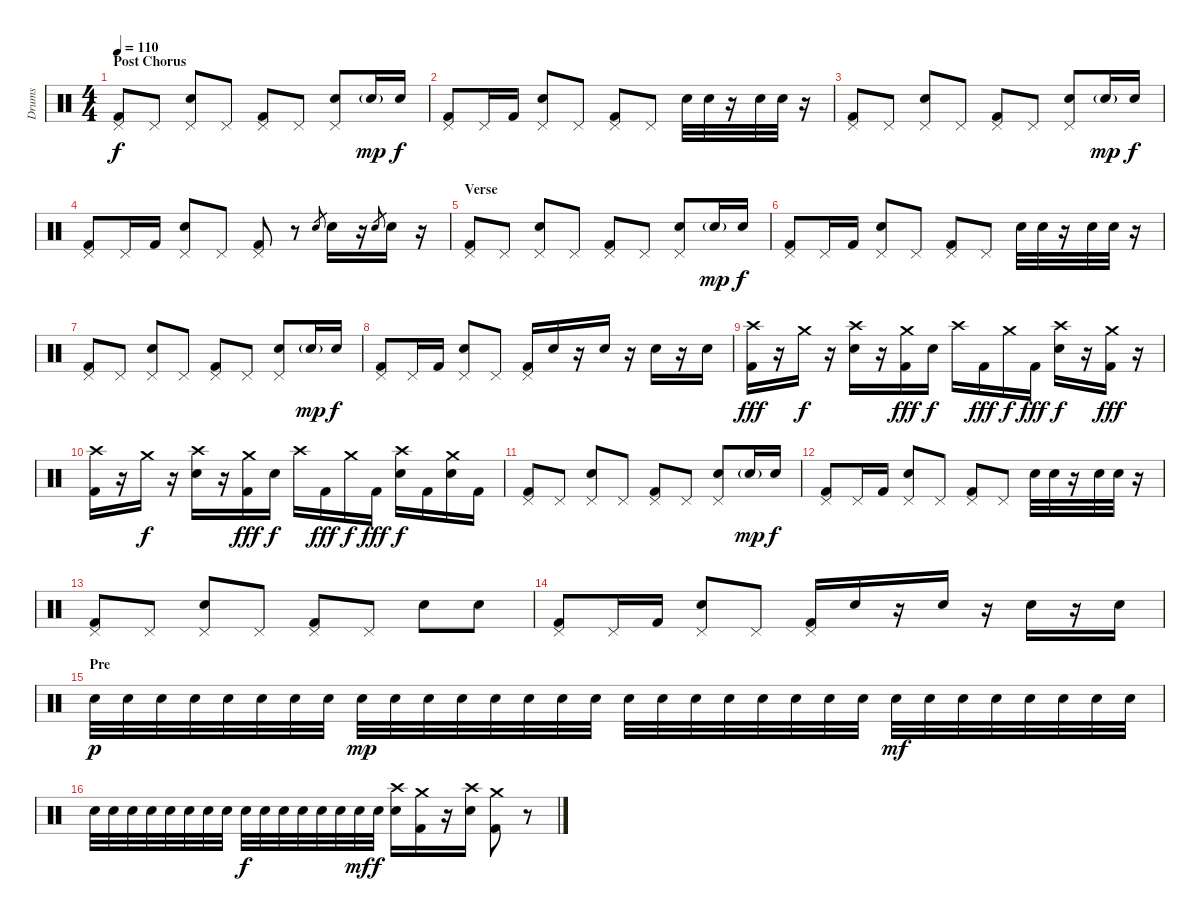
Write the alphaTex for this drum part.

\track ("Drums" "Drums") {instrument percussion}
\staff {score}
\articulation defaults
\ts (4 4)
\section ("" "Post Chorus")
\tempo 110
\clef neutral
\ks c
("Pedal Hi-Hat (hit)" "Kick (hit) 2").8{dy f} "Pedal Hi-Hat (hit)".8 ("Pedal Hi-Hat (hit)" "Electric Snare (hit)").8 "Pedal Hi-Hat (hit)".8 ("Pedal Hi-Hat (hit)" "Kick (hit) 2").8 "Pedal Hi-Hat (hit)".8 ("Pedal Hi-Hat (hit)" "Electric Snare (hit)").8 "Electric Snare (hit)"{g}.16{dy mp} "Electric Snare (hit)".16{dy f} |
("Pedal Hi-Hat (hit)" "Kick (hit) 2").8 "Pedal Hi-Hat (hit)".16 "Kick (hit) 2".16 ("Pedal Hi-Hat (hit)" "Electric Snare (hit)").8 "Pedal Hi-Hat (hit)".8 ("Pedal Hi-Hat (hit)" "Kick (hit) 2").8 "Pedal Hi-Hat (hit)".8 "Electric Snare (hit)".32 "Electric Snare (hit)".32 r.16 "Electric Snare (hit)".32 "Electric Snare (hit)".32 r.16 |
("Pedal Hi-Hat (hit)" "Kick (hit) 2").8 "Pedal Hi-Hat (hit)".8 ("Pedal Hi-Hat (hit)" "Electric Snare (hit)").8 "Pedal Hi-Hat (hit)".8 ("Pedal Hi-Hat (hit)" "Kick (hit) 2").8 "Pedal Hi-Hat (hit)".8 ("Pedal Hi-Hat (hit)" "Electric Snare (hit)").8 "Electric Snare (hit)"{g}.16{dy mp} "Electric Snare (hit)".16{dy f} |
("Pedal Hi-Hat (hit)" "Kick (hit) 2").8 "Pedal Hi-Hat (hit)".16 "Kick (hit) 2".16 ("Pedal Hi-Hat (hit)" "Electric Snare (hit)").8 "Pedal Hi-Hat (hit)".8 ("Pedal Hi-Hat (hit)" "Kick (hit) 2").8 r.8 "Electric Snare (hit)".8{gr} "Electric Snare (hit)".16 r.16 "Electric Snare (hit)".8{gr} "Electric Snare (hit)".16 r.16 |
\section ("" "Verse")
("Pedal Hi-Hat (hit)" "Kick (hit) 2").8 "Pedal Hi-Hat (hit)".8 ("Pedal Hi-Hat (hit)" "Electric Snare (hit)").8 "Pedal Hi-Hat (hit)".8 ("Pedal Hi-Hat (hit)" "Kick (hit) 2").8 "Pedal Hi-Hat (hit)".8 ("Pedal Hi-Hat (hit)" "Electric Snare (hit)").8 "Electric Snare (hit)"{g}.16{dy mp} "Electric Snare (hit)".16{dy f} |
("Pedal Hi-Hat (hit)" "Kick (hit) 2").8 "Pedal Hi-Hat (hit)".16 "Kick (hit) 2".16 ("Pedal Hi-Hat (hit)" "Electric Snare (hit)").8 "Pedal Hi-Hat (hit)".8 ("Pedal Hi-Hat (hit)" "Kick (hit) 2").8 "Pedal Hi-Hat (hit)".8 "Electric Snare (hit)".32 "Electric Snare (hit)".32 r.16 "Electric Snare (hit)".32 "Electric Snare (hit)".32 r.16 |
("Pedal Hi-Hat (hit)" "Kick (hit) 2").8 "Pedal Hi-Hat (hit)".8 ("Pedal Hi-Hat (hit)" "Electric Snare (hit)").8 "Pedal Hi-Hat (hit)".8 ("Pedal Hi-Hat (hit)" "Kick (hit) 2").8 "Pedal Hi-Hat (hit)".8 ("Pedal Hi-Hat (hit)" "Electric Snare (hit)").8 "Electric Snare (hit)"{g}.16{dy mp} "Electric Snare (hit)".16{dy f} |
("Pedal Hi-Hat (hit)" "Kick (hit) 2").8 "Pedal Hi-Hat (hit)".16 "Kick (hit) 2".16 ("Pedal Hi-Hat (hit)" "Electric Snare (hit)").8 "Pedal Hi-Hat (hit)".8 ("Pedal Hi-Hat (hit)" "Kick (hit) 2").16 "Electric Snare (hit)".16 r.16 "Electric Snare (hit)".16 r.16 "Electric Snare (hit)".16 r.16 "Electric Snare (hit)".16 |
("Crash high (hit)" "Kick (hit) 2").16{dy fff} r.16 "Crash medium (hit)".16{dy f} r.16 ("Crash high (hit)" "Electric Snare (hit)").16 r.16 ("Crash medium (hit)" "Kick (hit) 2").16{dy fff} "Electric Snare (hit)".16{dy f} "Crash high (hit)".16 "Kick (hit) 2".16{dy fff} "Crash medium (hit)".16{dy f} "Kick (hit) 2".16{dy fff} ("Crash high (hit)" "Electric Snare (hit)").16{dy f} r.16 ("Crash medium (hit)" "Kick (hit) 2").16{dy fff} r.16 |
("Crash high (hit)" "Kick (hit) 2").16 r.16 "Crash medium (hit)".16{dy f} r.16 ("Crash high (hit)" "Electric Snare (hit)").16 r.16 ("Crash medium (hit)" "Kick (hit) 2").16{dy fff} "Electric Snare (hit)".16{dy f} "Crash high (hit)".16 "Kick (hit) 2".16{dy fff} "Crash medium (hit)".16{dy f} "Kick (hit) 2".16{dy fff} ("Crash high (hit)" "Electric Snare (hit)").16{dy f} "Kick (hit) 2".16 ("Crash medium (hit)" "Electric Snare (hit)").16 "Kick (hit) 2".16 |
("Pedal Hi-Hat (hit)" "Kick (hit) 2").8 "Pedal Hi-Hat (hit)".8 ("Pedal Hi-Hat (hit)" "Electric Snare (hit)").8 "Pedal Hi-Hat (hit)".8 ("Pedal Hi-Hat (hit)" "Kick (hit) 2").8 "Pedal Hi-Hat (hit)".8 ("Pedal Hi-Hat (hit)" "Electric Snare (hit)").8 "Electric Snare (hit)"{g}.16{dy mp} "Electric Snare (hit)".16{dy f} |
("Pedal Hi-Hat (hit)" "Kick (hit) 2").8 "Pedal Hi-Hat (hit)".16 "Kick (hit) 2".16 ("Pedal Hi-Hat (hit)" "Electric Snare (hit)").8 "Pedal Hi-Hat (hit)".8 ("Pedal Hi-Hat (hit)" "Kick (hit) 2").8 "Pedal Hi-Hat (hit)".8 "Electric Snare (hit)".32 "Electric Snare (hit)".32 r.16 "Electric Snare (hit)".32 "Electric Snare (hit)".32 r.16 |
("Pedal Hi-Hat (hit)" "Kick (hit) 2").8 "Pedal Hi-Hat (hit)".8 ("Pedal Hi-Hat (hit)" "Electric Snare (hit)").8 "Pedal Hi-Hat (hit)".8 ("Pedal Hi-Hat (hit)" "Kick (hit) 2").8 "Pedal Hi-Hat (hit)".8 "Electric Snare (hit)".8 "Electric Snare (hit)".8 |
("Pedal Hi-Hat (hit)" "Kick (hit) 2").8 "Pedal Hi-Hat (hit)".16 "Kick (hit) 2".16 ("Pedal Hi-Hat (hit)" "Electric Snare (hit)").8 "Pedal Hi-Hat (hit)".8 ("Pedal Hi-Hat (hit)" "Kick (hit) 2").16 "Electric Snare (hit)".16 r.16 "Electric Snare (hit)".16 r.16 "Electric Snare (hit)".16 r.16 "Electric Snare (hit)".16 |
\section ("" "Pre")
"Electric Snare (hit)".32{dy p} "Electric Snare (hit)".32 "Electric Snare (hit)".32 "Electric Snare (hit)".32 "Electric Snare (hit)".32 "Electric Snare (hit)".32 "Electric Snare (hit)".32 "Electric Snare (hit)".32 "Electric Snare (hit)".32{dy mp} "Electric Snare (hit)".32 "Electric Snare (hit)".32 "Electric Snare (hit)".32 "Electric Snare (hit)".32 "Electric Snare (hit)".32 "Electric Snare (hit)".32 "Electric Snare (hit)".32 "Electric Snare (hit)".32 "Electric Snare (hit)".32 "Electric Snare (hit)".32 "Electric Snare (hit)".32 "Electric Snare (hit)".32 "Electric Snare (hit)".32 "Electric Snare (hit)".32 "Electric Snare (hit)".32 "Electric Snare (hit)".32{dy mf} "Electric Snare (hit)".32 "Electric Snare (hit)".32 "Electric Snare (hit)".32 "Electric Snare (hit)".32 "Electric Snare (hit)".32 "Electric Snare (hit)".32 "Electric Snare (hit)".32 |
"Electric Snare (hit)".32 "Electric Snare (hit)".32 "Electric Snare (hit)".32 "Electric Snare (hit)".32 "Electric Snare (hit)".32 "Electric Snare (hit)".32 "Electric Snare (hit)".32 "Electric Snare (hit)".32 "Electric Snare (hit)".32{dy f} "Electric Snare (hit)".32 "Electric Snare (hit)".32 "Electric Snare (hit)".32 "Electric Snare (hit)".32 "Electric Snare (hit)".32 "Electric Snare (hit)".32{dy mf} "Electric Snare (hit)".32{dy f} ("Crash high (hit)" "Electric Snare (hit)").16 ("Crash medium (hit)" "Kick (hit) 2").16 r.16 ("Crash high (hit)" "Electric Snare (hit)").16 ("Crash medium (hit)" "Kick (hit) 2").8 r.8
